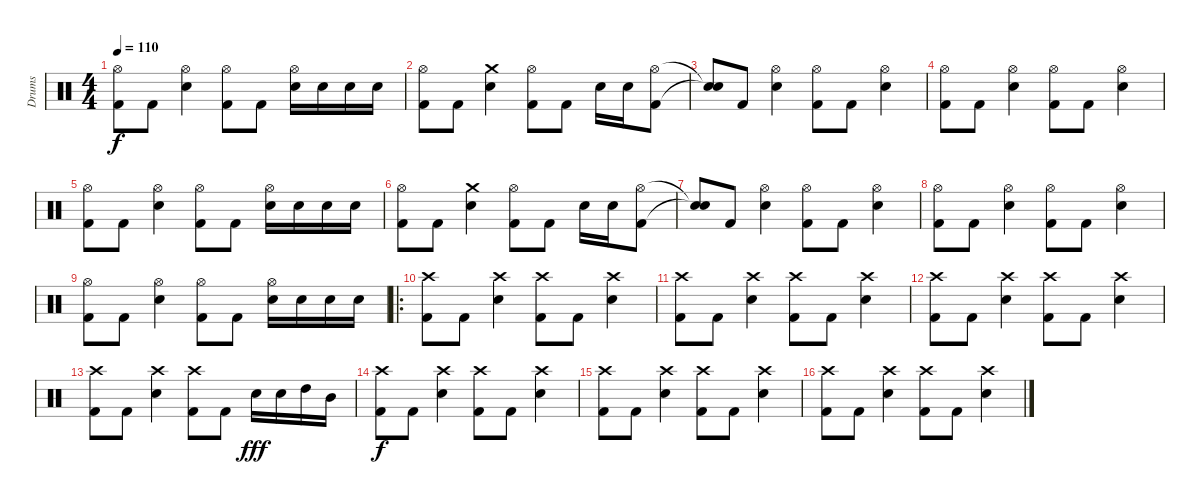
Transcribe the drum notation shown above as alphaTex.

\track ("Drums" "Drums") {instrument percussion}
\staff {score}
\articulation defaults
\ts (4 4)
\tempo 110
\clef neutral
\ks c
("Kick (hit) 2" "Hi-Hat (open)").8{dy f} "Kick (hit) 2".8 ("Hi-Hat (open)" "Snare (hit) 2").4 ("Kick (hit) 2" "Hi-Hat (open)").8 "Kick (hit) 2".8 ("Hi-Hat (open)" "Snare (hit) 2").16 "Snare (hit) 2".16 "Snare (hit) 2".16 "Snare (hit) 2".16 |
("Kick (hit) 2" "Hi-Hat (open)").8 "Kick (hit) 2".8 ("Crash medium (hit)" "Snare (hit) 2").4 ("Kick (hit) 2" "Hi-Hat (open)").8 "Kick (hit) 2".8 "Snare (hit) 2".16 "Snare (hit) 2".16 ("Kick (hit) 2" "Hi-Hat (open)").8 |
("Snare (hit)"{t} "Snare (hit)"{t}).8 "Kick (hit) 2".8 ("Hi-Hat (open)" "Snare (hit) 2").4 ("Kick (hit) 2" "Hi-Hat (open)").8 "Kick (hit) 2".8 ("Hi-Hat (open)" "Snare (hit) 2").4 |
("Kick (hit) 2" "Hi-Hat (open)").8 "Kick (hit) 2".8 ("Hi-Hat (open)" "Snare (hit) 2").4 ("Kick (hit) 2" "Hi-Hat (open)").8 "Kick (hit) 2".8 ("Hi-Hat (open)" "Snare (hit) 2").4 |
("Kick (hit) 2" "Hi-Hat (open)").8 "Kick (hit) 2".8 ("Hi-Hat (open)" "Snare (hit) 2").4 ("Kick (hit) 2" "Hi-Hat (open)").8 "Kick (hit) 2".8 ("Hi-Hat (open)" "Snare (hit) 2").16 "Snare (hit) 2".16 "Snare (hit) 2".16 "Snare (hit) 2".16 |
("Kick (hit) 2" "Hi-Hat (open)").8 "Kick (hit) 2".8 ("Crash medium (hit)" "Snare (hit) 2").4 ("Kick (hit) 2" "Hi-Hat (open)").8 "Kick (hit) 2".8 "Snare (hit) 2".16 "Snare (hit) 2".16 ("Kick (hit) 2" "Hi-Hat (open)").8 |
("Snare (hit)"{t} "Snare (hit)"{t}).8 "Kick (hit) 2".8 ("Hi-Hat (open)" "Snare (hit) 2").4 ("Kick (hit) 2" "Hi-Hat (open)").8 "Kick (hit) 2".8 ("Hi-Hat (open)" "Snare (hit) 2").4 |
("Kick (hit) 2" "Hi-Hat (open)").8 "Kick (hit) 2".8 ("Hi-Hat (open)" "Snare (hit) 2").4 ("Kick (hit) 2" "Hi-Hat (open)").8 "Kick (hit) 2".8 ("Hi-Hat (open)" "Snare (hit) 2").4 |
("Kick (hit) 2" "Hi-Hat (open)").8 "Kick (hit) 2".8 ("Hi-Hat (open)" "Snare (hit) 2").4 ("Kick (hit) 2" "Hi-Hat (open)").8 "Kick (hit) 2".8 ("Hi-Hat (open)" "Snare (hit) 2").16 "Snare (hit) 2".16 "Snare (hit) 2".16 "Snare (hit) 2".16 |
\ro
("Kick (hit) 2" "Crash high (hit)").8 "Kick (hit) 2".8 ("Crash high (hit)" "Snare (hit) 2").4 ("Kick (hit) 2" "Crash high (hit)").8 "Kick (hit) 2".8 ("Crash high (hit)" "Snare (hit) 2").4 |
("Kick (hit) 2" "Crash high (hit)").8 "Kick (hit) 2".8 ("Crash high (hit)" "Snare (hit) 2").4 ("Kick (hit) 2" "Crash high (hit)").8 "Kick (hit) 2".8 ("Crash high (hit)" "Snare (hit) 2").4 |
("Kick (hit) 2" "Crash high (hit)").8 "Kick (hit) 2".8 ("Crash high (hit)" "Snare (hit) 2").4 ("Kick (hit) 2" "Crash high (hit)").8 "Kick (hit) 2".8 ("Crash high (hit)" "Snare (hit) 2").4 |
("Kick (hit) 2" "Crash high (hit)").8 "Kick (hit) 2".8 ("Crash high (hit)" "Snare (hit) 2").4 ("Kick (hit) 2" "Crash high (hit)").8 "Kick (hit) 2".8 "Snare (hit) 2".16{dy fff} "Snare (hit) 2".16 "High Tom (hit)".16 "Mid Tom (hit)".16 |
("Kick (hit) 2" "Crash high (hit)").8{dy f} "Kick (hit) 2".8 ("Crash high (hit)" "Snare (hit) 2").4 ("Kick (hit) 2" "Crash high (hit)").8 "Kick (hit) 2".8 ("Crash high (hit)" "Snare (hit) 2").4 |
("Kick (hit) 2" "Crash high (hit)").8 "Kick (hit) 2".8 ("Crash high (hit)" "Snare (hit) 2").4 ("Kick (hit) 2" "Crash high (hit)").8 "Kick (hit) 2".8 ("Crash high (hit)" "Snare (hit) 2").4 |
("Kick (hit) 2" "Crash high (hit)").8 "Kick (hit) 2".8 ("Crash high (hit)" "Snare (hit) 2").4 ("Kick (hit) 2" "Crash high (hit)").8 "Kick (hit) 2".8 ("Crash high (hit)" "Snare (hit) 2").4
